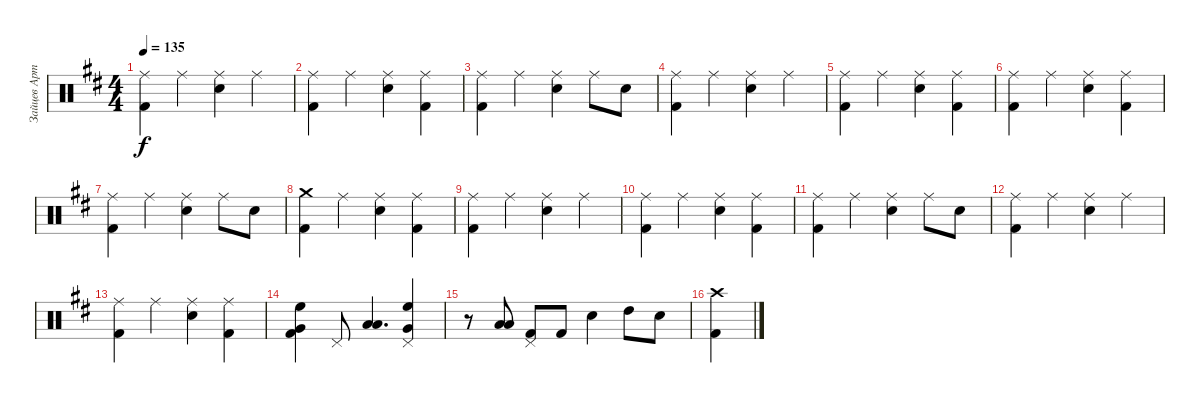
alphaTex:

\track ("Зайцев Артём" "Зайцев Арт") {instrument percussion}
\staff {score}
\articulation defaults
\ts (4 4)
\tempo 135
\clef neutral
\ks d
("Ride (middle)" "Kick (hit) 2").4{dy f} "Ride (middle)".4 ("Ride (middle)" "Snare (hit) 2").4 "Ride (middle)".4 |
("Kick (hit) 2" "Ride (middle)").4 "Ride (middle)".4 ("Ride (middle)" "Snare (hit) 2").4 ("Ride (middle)" "Kick (hit) 2").4 |
("Kick (hit) 2" "Ride (middle)").4 "Ride (middle)".4 ("Ride (middle)" "Snare (hit) 2").4 "Ride (middle)".8 "Snare (hit) 2".8 |
("Ride (middle)" "Kick (hit) 2").4 "Ride (middle)".4 ("Ride (middle)" "Snare (hit) 2").4 "Ride (middle)".4 |
("Kick (hit) 2" "Ride (middle)").4 "Ride (middle)".4 ("Ride (middle)" "Snare (hit) 2").4 ("Ride (middle)" "Kick (hit) 2").4 |
("Kick (hit) 2" "Ride (middle)").4 "Ride (middle)".4 ("Ride (middle)" "Snare (hit) 2").4 ("Ride (middle)" "Kick (hit) 2").4 |
("Kick (hit) 2" "Ride (middle)").4 "Ride (middle)".4 ("Ride (middle)" "Snare (hit) 2").4 "Ride (middle)".8 "Snare (hit) 2".8 |
("Kick (hit) 2" "Crash medium (hit)").4 "Ride (middle)".4 ("Ride (middle)" "Snare (hit) 2").4 ("Ride (middle)" "Kick (hit) 2").4 |
("Ride (middle)" "Kick (hit) 2").4 "Ride (middle)".4 ("Ride (middle)" "Snare (hit) 2").4 "Ride (middle)".4 |
("Kick (hit) 2" "Ride (middle)").4 "Ride (middle)".4 ("Ride (middle)" "Snare (hit) 2").4 ("Ride (middle)" "Kick (hit) 2").4 |
("Kick (hit) 2" "Ride (middle)").4 "Ride (middle)".4 ("Ride (middle)" "Snare (hit) 2").4 "Ride (middle)".8 "Snare (hit) 2".8 |
("Ride (middle)" "Kick (hit) 2").4 "Ride (middle)".4 ("Ride (middle)" "Snare (hit) 2").4 "Ride (middle)".4 |
("Kick (hit) 2" "Ride (middle)").4 "Ride (middle)".4 ("Ride (middle)" "Snare (hit) 2").4 ("Ride (middle)" "Kick (hit) 2").4 |
("Kick (hit) 2" "Very Low Tom (hit)" "High Floor Tom (hit)").4 "Pedal Hi-Hat (hit)".8 ("Low Floor Tom (hit)" "Low Tom (hit)").4{d} ("Very Low Tom (hit)" "High Floor Tom (hit)" "Pedal Hi-Hat (hit)").4 |
r.8 ("Low Floor Tom (hit)" "Low Tom (hit)").8 ("Pedal Hi-Hat (hit)" "Kick (hit) 2").8 "Kick (hit) 2".8 "Snare (hit) 2".4 "High Tom (hit)".8 "Snare (hit) 2".8 |
("Kick (hit) 2" "Crash high (hit)").4
